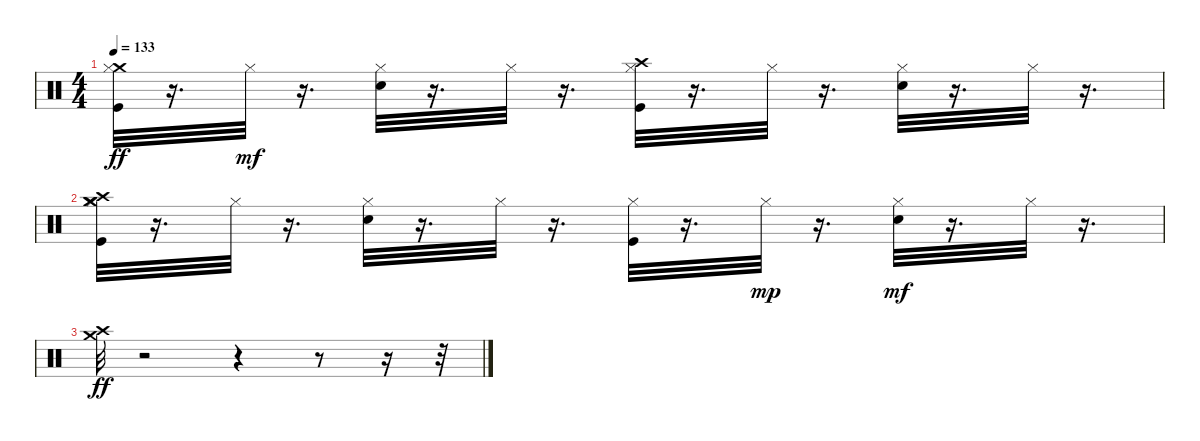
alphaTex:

\track "" {instrument percussion}
\staff {score}
\articulation defaults
\ts (4 4)
\tempo 133
\clef neutral
\ks c
("Crash medium (hit)" "Kick (hit)" "Hi-Hat (closed)").32{dy ff} r.16{d} "Hi-Hat (closed)".32{dy mf} r.16{d} ("Snare (hit) 2" "Hi-Hat (closed)").32 r.16{d} "Hi-Hat (closed)".32 r.16{d} ("Crash high (hit)" "Kick (hit)" "Hi-Hat (closed)").32 r.16{d} "Hi-Hat (closed)".32 r.16{d} ("Snare (hit) 2" "Hi-Hat (closed)").32 r.16{d} "Hi-Hat (closed)".32 r.16{d} |
("Crash medium (hit)" "Crash medium (hit)" "Crash high (hit)" "Kick (hit)" "Hi-Hat (closed)").32 r.16{d} "Hi-Hat (closed)".32 r.16{d} ("Snare (hit) 2" "Hi-Hat (closed)").32 r.16{d} "Hi-Hat (closed)".32 r.16{d} ("Kick (hit)" "Hi-Hat (closed)").32 r.16{d} "Hi-Hat (closed)".32{dy mp} r.16{d} ("Snare (hit) 2" "Hi-Hat (closed)").32{dy mf} r.16{d} "Hi-Hat (closed)".32 r.16{d} |
("Crash high (hit)" "Crash medium (hit)").32{dy ff} r.2 r.4 r.8 r.16 r.32
